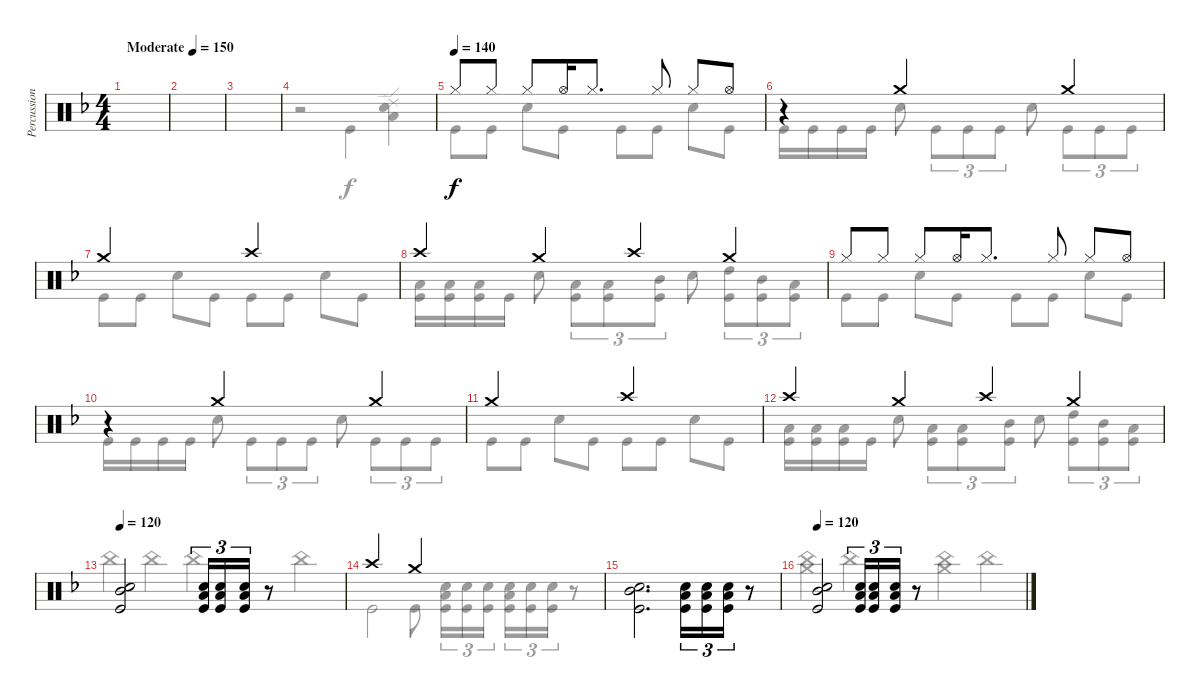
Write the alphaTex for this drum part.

\track ("Percussion" "Percussion") {instrument percussion}
\staff {score}
\articulation defaults
\voice
\ts (4 4)
\tempo (150 "Moderate")
\clef neutral
\ks dminor
|
|
|
|
\tempo (140)
"Hi-Hat (closed)".8 "Hi-Hat (closed)".8 "Hi-Hat (closed)".8 "Hi-Hat (open)".16 "Hi-Hat (closed)".8{d} "Hi-Hat (closed)".8 "Hi-Hat (closed)".8 "Hi-Hat (open)".8 |
r.4 "Crash medium (hit)".2 "Crash medium (hit)".2 |
"Crash medium (hit)".2 "Crash high (hit)".2 |
"Crash high (hit)".4 "Crash medium (hit)".4 "Crash high (hit)".4 "Crash medium (hit)".4 |
"Hi-Hat (closed)".8 "Hi-Hat (closed)".8 "Hi-Hat (closed)".8 "Hi-Hat (open)".16 "Hi-Hat (closed)".8{d} "Hi-Hat (closed)".8 "Hi-Hat (closed)".8 "Hi-Hat (open)".8 |
r.4 "Crash medium (hit)".2 "Crash medium (hit)".2 |
"Crash medium (hit)".2 "Crash high (hit)".2 |
"Crash high (hit)".4 "Crash medium (hit)".4 "Crash high (hit)".4 "Crash medium (hit)".4 |
\tempo 120
("Electric Snare (hit)" "Kick (hit)" "Mid Tom (hit)").2 ("Electric Snare (hit)" "Low Floor Tom (hit)" "Kick (hit)").16{tu (3 2)} ("Electric Snare (hit)" "Low Floor Tom (hit)" "Kick (hit)").16{tu (3 2)} ("Electric Snare (hit)" "Low Floor Tom (hit)" "Kick (hit)").16{tu (3 2)} r.8 |
"Crash high (hit)".2 "Crash medium (hit)".2 |
("Electric Snare (hit)" "Kick (hit)" "Mid Tom (hit)").2{d} ("Electric Snare (hit)" "Low Floor Tom (hit)" "Kick (hit)").16{tu (3 2)} ("Electric Snare (hit)" "Low Floor Tom (hit)" "Kick (hit)").16{tu (3 2)} ("Electric Snare (hit)" "Low Floor Tom (hit)" "Kick (hit)").16{tu (3 2)} r.8 |
\tempo 120
("Electric Snare (hit)" "Kick (hit)" "Mid Tom (hit)").2 ("Electric Snare (hit)" "Low Floor Tom (hit)" "Kick (hit)").16{tu (3 2)} ("Electric Snare (hit)" "Low Floor Tom (hit)" "Kick (hit)").16{tu (3 2)} ("Electric Snare (hit)" "Low Floor Tom (hit)" "Kick (hit)").16{tu (3 2)} r.8
\voice
\clef neutral
\ottava regular
\simile none
\ks dminor
|
|
|
r.2 "Kick (hit)".4 ("Snare (hit) 2" "Ride (edge) 2" "Low Floor Tom (hit)").4 |
"Kick (hit)".8 "Kick (hit)".8 "Electric Snare (hit)".8 "Kick (hit)".8 "Kick (hit)".8 "Kick (hit)".8 "Electric Snare (hit)".8 "Kick (hit)".8 |
"Kick (hit)".16 "Kick (hit)".16 "Kick (hit)".16 "Kick (hit)".16 "Electric Snare (hit)".8 "Kick (hit)".8{tu (3 2)} "Kick (hit)".8{tu (3 2)} "Kick (hit)".8{tu (3 2)} "Electric Snare (hit)".8 "Kick (hit)".8{tu (3 2)} "Kick (hit)".8{tu (3 2)} "Kick (hit)".8{tu (3 2)} |
"Kick (hit)".8 "Kick (hit)".8 "Electric Snare (hit)".8 "Kick (hit)".8 "Kick (hit)".8 "Kick (hit)".8 "Electric Snare (hit)".8 "Kick (hit)".8 |
("Low Floor Tom (hit)" "Kick (hit)").16 ("Low Floor Tom (hit)" "Kick (hit)").16 ("Low Floor Tom (hit)" "Kick (hit)").16 "Kick (hit)".16 "Electric Snare (hit)".8 ("Low Tom (hit)" "Kick (hit)").8{tu (3 2)} ("Low Tom (hit)" "Kick (hit)").8{tu (3 2)} ("Mid Tom (hit)" "Kick (hit)").8{tu (3 2)} "Electric Snare (hit)".8 ("High Tom (hit)" "Kick (hit)").8{tu (3 2)} ("Mid Tom (hit)" "Kick (hit)").8{tu (3 2)} ("Low Tom (hit)" "Kick (hit)").8{tu (3 2)} |
"Kick (hit)".8 "Kick (hit)".8 "Electric Snare (hit)".8 "Kick (hit)".8 "Kick (hit)".8 "Kick (hit)".8 "Electric Snare (hit)".8 "Kick (hit)".8 |
"Kick (hit)".16 "Kick (hit)".16 "Kick (hit)".16 "Kick (hit)".16 "Electric Snare (hit)".8 "Kick (hit)".8{tu (3 2)} "Kick (hit)".8{tu (3 2)} "Kick (hit)".8{tu (3 2)} "Electric Snare (hit)".8 "Kick (hit)".8{tu (3 2)} "Kick (hit)".8{tu (3 2)} "Kick (hit)".8{tu (3 2)} |
"Kick (hit)".8 "Kick (hit)".8 "Electric Snare (hit)".8 "Kick (hit)".8 "Kick (hit)".8 "Kick (hit)".8 "Electric Snare (hit)".8 "Kick (hit)".8 |
("Low Floor Tom (hit)" "Kick (hit)").16 ("Low Floor Tom (hit)" "Kick (hit)").16 ("Low Floor Tom (hit)" "Kick (hit)").16 "Kick (hit)".16 "Electric Snare (hit)".8 ("Low Tom (hit)" "Kick (hit)").8{tu (3 2)} ("Low Tom (hit)" "Kick (hit)").8{tu (3 2)} ("Mid Tom (hit)" "Kick (hit)").8{tu (3 2)} "Electric Snare (hit)".8 ("High Tom (hit)" "Kick (hit)").8{tu (3 2)} ("Mid Tom (hit)" "Kick (hit)").8{tu (3 2)} ("Low Tom (hit)" "Kick (hit)").8{tu (3 2)} |
"China (hit)".4 "China (hit)".4 "China (hit)".4 "China (hit)".4 |
"Kick (hit)".2 "Kick (hit)".8 ("Electric Snare (hit)" "Low Floor Tom (hit)" "Kick (hit)").16{tu (3 2)} ("Electric Snare (hit)" "Kick (hit)").16{tu (3 2)} ("Electric Snare (hit)" "Kick (hit)").16{tu (3 2)} ("Electric Snare (hit)" "Low Floor Tom (hit)" "Kick (hit)").16{tu (3 2)} ("Electric Snare (hit)" "Kick (hit)").16{tu (3 2)} ("Electric Snare (hit)" "Kick (hit)").16{tu (3 2)} r.8 |
|
("Crash medium (hit)" "China (hit)").2 "China (hit)".4 ("Crash medium (hit)" "China (hit)").2 "China (hit)".4
